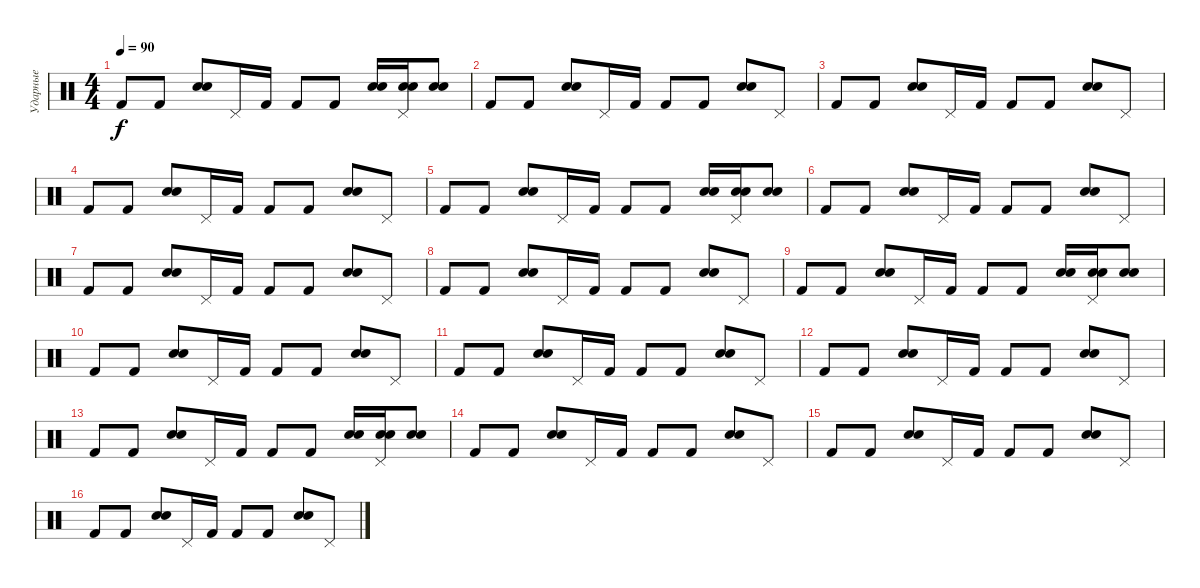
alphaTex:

\track ("Ударные" "Ударные") {instrument percussion}
\staff {score}
\articulation defaults
\ts (4 4)
\tempo 90
\clef neutral
\ks c "Kick (hit) 2".8{dy f} "Kick (hit) 2".8
("Electric Snare (hit)" "Snare (hit) 2").8 "Pedal Hi-Hat (hit)".16 "Kick (hit) 2".16 "Kick (hit) 2".8 "Kick (hit) 2".8 ("Electric Snare (hit)" "Snare (hit) 2").16 ("Pedal Hi-Hat (hit)" "Electric Snare (hit)" "Snare (hit) 2").16 ("Electric Snare (hit)" "Snare (hit) 2").8 |
"Kick (hit) 2".8 "Kick (hit) 2".8 ("Electric Snare (hit)" "Snare (hit) 2").8 "Pedal Hi-Hat (hit)".16 "Kick (hit) 2".16 "Kick (hit) 2".8 "Kick (hit) 2".8 ("Electric Snare (hit)" "Snare (hit) 2").8 "Pedal Hi-Hat (hit)".8 |
"Kick (hit) 2".8 "Kick (hit) 2".8 ("Electric Snare (hit)" "Snare (hit) 2").8 "Pedal Hi-Hat (hit)".16 "Kick (hit) 2".16 "Kick (hit) 2".8 "Kick (hit) 2".8 ("Electric Snare (hit)" "Snare (hit) 2").8 "Pedal Hi-Hat (hit)".8 |
"Kick (hit) 2".8 "Kick (hit) 2".8 ("Electric Snare (hit)" "Snare (hit) 2").8 "Pedal Hi-Hat (hit)".16 "Kick (hit) 2".16 "Kick (hit) 2".8 "Kick (hit) 2".8 ("Electric Snare (hit)" "Snare (hit) 2").8 "Pedal Hi-Hat (hit)".8 |
"Kick (hit) 2".8 "Kick (hit) 2".8 ("Electric Snare (hit)" "Snare (hit) 2").8 "Pedal Hi-Hat (hit)".16 "Kick (hit) 2".16 "Kick (hit) 2".8 "Kick (hit) 2".8 ("Electric Snare (hit)" "Snare (hit) 2").16 ("Pedal Hi-Hat (hit)" "Electric Snare (hit)" "Snare (hit) 2").16 ("Electric Snare (hit)" "Snare (hit) 2").8 |
"Kick (hit) 2".8 "Kick (hit) 2".8 ("Electric Snare (hit)" "Snare (hit) 2").8 "Pedal Hi-Hat (hit)".16 "Kick (hit) 2".16 "Kick (hit) 2".8 "Kick (hit) 2".8 ("Electric Snare (hit)" "Snare (hit) 2").8 "Pedal Hi-Hat (hit)".8 |
"Kick (hit) 2".8 "Kick (hit) 2".8 ("Electric Snare (hit)" "Snare (hit) 2").8 "Pedal Hi-Hat (hit)".16 "Kick (hit) 2".16 "Kick (hit) 2".8 "Kick (hit) 2".8 ("Electric Snare (hit)" "Snare (hit) 2").8 "Pedal Hi-Hat (hit)".8 |
"Kick (hit) 2".8 "Kick (hit) 2".8 ("Electric Snare (hit)" "Snare (hit) 2").8 "Pedal Hi-Hat (hit)".16 "Kick (hit) 2".16 "Kick (hit) 2".8 "Kick (hit) 2".8 ("Electric Snare (hit)" "Snare (hit) 2").8 "Pedal Hi-Hat (hit)".8 |
"Kick (hit) 2".8 "Kick (hit) 2".8 ("Electric Snare (hit)" "Snare (hit) 2").8 "Pedal Hi-Hat (hit)".16 "Kick (hit) 2".16 "Kick (hit) 2".8 "Kick (hit) 2".8 ("Electric Snare (hit)" "Snare (hit) 2").16 ("Pedal Hi-Hat (hit)" "Electric Snare (hit)" "Snare (hit) 2").16 ("Electric Snare (hit)" "Snare (hit) 2").8 |
"Kick (hit) 2".8 "Kick (hit) 2".8 ("Electric Snare (hit)" "Snare (hit) 2").8 "Pedal Hi-Hat (hit)".16 "Kick (hit) 2".16 "Kick (hit) 2".8 "Kick (hit) 2".8 ("Electric Snare (hit)" "Snare (hit) 2").8 "Pedal Hi-Hat (hit)".8 |
"Kick (hit) 2".8 "Kick (hit) 2".8 ("Electric Snare (hit)" "Snare (hit) 2").8 "Pedal Hi-Hat (hit)".16 "Kick (hit) 2".16 "Kick (hit) 2".8 "Kick (hit) 2".8 ("Electric Snare (hit)" "Snare (hit) 2").8 "Pedal Hi-Hat (hit)".8 |
"Kick (hit) 2".8 "Kick (hit) 2".8 ("Electric Snare (hit)" "Snare (hit) 2").8 "Pedal Hi-Hat (hit)".16 "Kick (hit) 2".16 "Kick (hit) 2".8 "Kick (hit) 2".8 ("Electric Snare (hit)" "Snare (hit) 2").8 "Pedal Hi-Hat (hit)".8 |
"Kick (hit) 2".8 "Kick (hit) 2".8 ("Electric Snare (hit)" "Snare (hit) 2").8 "Pedal Hi-Hat (hit)".16 "Kick (hit) 2".16 "Kick (hit) 2".8 "Kick (hit) 2".8 ("Electric Snare (hit)" "Snare (hit) 2").16 ("Pedal Hi-Hat (hit)" "Electric Snare (hit)" "Snare (hit) 2").16 ("Electric Snare (hit)" "Snare (hit) 2").8 |
"Kick (hit) 2".8 "Kick (hit) 2".8 ("Electric Snare (hit)" "Snare (hit) 2").8 "Pedal Hi-Hat (hit)".16 "Kick (hit) 2".16 "Kick (hit) 2".8 "Kick (hit) 2".8 ("Electric Snare (hit)" "Snare (hit) 2").8 "Pedal Hi-Hat (hit)".8 |
"Kick (hit) 2".8 "Kick (hit) 2".8 ("Electric Snare (hit)" "Snare (hit) 2").8 "Pedal Hi-Hat (hit)".16 "Kick (hit) 2".16 "Kick (hit) 2".8 "Kick (hit) 2".8 ("Electric Snare (hit)" "Snare (hit) 2").8 "Pedal Hi-Hat (hit)".8 |
"Kick (hit) 2".8 "Kick (hit) 2".8 ("Electric Snare (hit)" "Snare (hit) 2").8 "Pedal Hi-Hat (hit)".16 "Kick (hit) 2".16 "Kick (hit) 2".8 "Kick (hit) 2".8 ("Electric Snare (hit)" "Snare (hit) 2").8 "Pedal Hi-Hat (hit)".8
